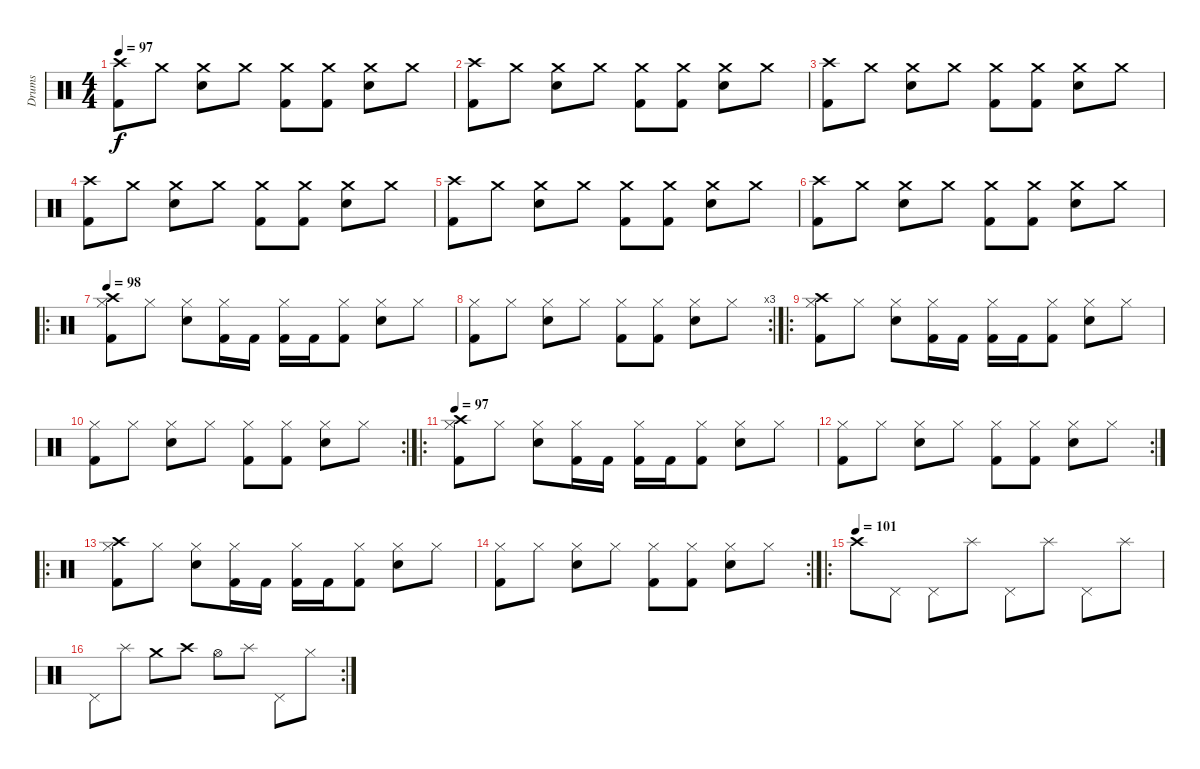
\track ("Drums" "Drums") {instrument percussion}
\staff {score}
\articulation defaults
\ts (4 4)
\tempo 97
\clef neutral
\ks c
("Crash high (hit)" "Kick (hit) 2").8{dy f} "Crash medium (hit)".8 ("Crash medium (hit)" "Electric Snare (hit)").8 "Crash medium (hit)".8 ("Crash medium (hit)" "Kick (hit) 2").8 ("Crash medium (hit)" "Kick (hit) 2").8 ("Crash medium (hit)" "Electric Snare (hit)").8 "Crash medium (hit)".8 |
("Crash high (hit)" "Kick (hit) 2").8 "Crash medium (hit)".8 ("Crash medium (hit)" "Electric Snare (hit)").8 "Crash medium (hit)".8 ("Crash medium (hit)" "Kick (hit) 2").8 ("Crash medium (hit)" "Kick (hit) 2").8 ("Crash medium (hit)" "Electric Snare (hit)").8 "Crash medium (hit)".8 |
("Crash high (hit)" "Kick (hit) 2").8 "Crash medium (hit)".8 ("Crash medium (hit)" "Electric Snare (hit)").8 "Crash medium (hit)".8 ("Crash medium (hit)" "Kick (hit) 2").8 ("Crash medium (hit)" "Kick (hit) 2").8 ("Crash medium (hit)" "Electric Snare (hit)").8 "Crash medium (hit)".8 |
("Crash high (hit)" "Kick (hit) 2").8 "Crash medium (hit)".8 ("Crash medium (hit)" "Electric Snare (hit)").8 "Crash medium (hit)".8 ("Crash medium (hit)" "Kick (hit) 2").8 ("Crash medium (hit)" "Kick (hit) 2").8 ("Crash medium (hit)" "Electric Snare (hit)").8 "Crash medium (hit)".8 |
("Crash high (hit)" "Kick (hit) 2").8 "Crash medium (hit)".8 ("Crash medium (hit)" "Electric Snare (hit)").8 "Crash medium (hit)".8 ("Crash medium (hit)" "Kick (hit) 2").8 ("Crash medium (hit)" "Kick (hit) 2").8 ("Crash medium (hit)" "Electric Snare (hit)").8 "Crash medium (hit)".8 |
("Crash high (hit)" "Kick (hit) 2").8 "Crash medium (hit)".8 ("Crash medium (hit)" "Electric Snare (hit)").8 "Crash medium (hit)".8 ("Crash medium (hit)" "Kick (hit) 2").8 ("Crash medium (hit)" "Kick (hit) 2").8 ("Crash medium (hit)" "Electric Snare (hit)").8 "Crash medium (hit)".8 |
\ro
\tempo 98
("Hi-Hat (closed)" "Crash high (hit)" "Kick (hit) 2").8 "Hi-Hat (closed)".8 ("Hi-Hat (closed)" "Electric Snare (hit)").8 ("Hi-Hat (closed)" "Kick (hit) 2").16 "Kick (hit) 2".16 ("Hi-Hat (closed)" "Kick (hit) 2").16 "Kick (hit) 2".16 ("Hi-Hat (closed)" "Kick (hit) 2").8 ("Hi-Hat (closed)" "Electric Snare (hit)").8 "Hi-Hat (closed)".8 |
\rc 3
("Hi-Hat (closed)" "Kick (hit) 2").8 "Hi-Hat (closed)".8 ("Hi-Hat (closed)" "Electric Snare (hit)").8 "Hi-Hat (closed)".8 ("Hi-Hat (closed)" "Kick (hit) 2").8 ("Hi-Hat (closed)" "Kick (hit) 2").8 ("Hi-Hat (closed)" "Electric Snare (hit)").8 "Hi-Hat (closed)".8 |
\ro
("Hi-Hat (closed)" "Crash high (hit)" "Kick (hit) 2").8 "Hi-Hat (closed)".8 ("Hi-Hat (closed)" "Electric Snare (hit)").8 ("Hi-Hat (closed)" "Kick (hit) 2").16 "Kick (hit) 2".16 ("Hi-Hat (closed)" "Kick (hit) 2").16 "Kick (hit) 2".16 ("Hi-Hat (closed)" "Kick (hit) 2").8 ("Hi-Hat (closed)" "Electric Snare (hit)").8 "Hi-Hat (closed)".8 |
\rc 2
("Hi-Hat (closed)" "Kick (hit) 2").8 "Hi-Hat (closed)".8 ("Hi-Hat (closed)" "Electric Snare (hit)").8 "Hi-Hat (closed)".8 ("Hi-Hat (closed)" "Kick (hit) 2").8 ("Hi-Hat (closed)" "Kick (hit) 2").8 ("Hi-Hat (closed)" "Electric Snare (hit)").8 "Hi-Hat (closed)".8 |
\ro
\tempo 97
("Hi-Hat (closed)" "Crash high (hit)" "Kick (hit) 2").8 "Hi-Hat (closed)".8 ("Hi-Hat (closed)" "Electric Snare (hit)").8 ("Hi-Hat (closed)" "Kick (hit) 2").16 "Kick (hit) 2".16 ("Hi-Hat (closed)" "Kick (hit) 2").16 "Kick (hit) 2".16 ("Hi-Hat (closed)" "Kick (hit) 2").8 ("Hi-Hat (closed)" "Electric Snare (hit)").8 "Hi-Hat (closed)".8 |
\rc 2
("Hi-Hat (closed)" "Kick (hit) 2").8 "Hi-Hat (closed)".8 ("Hi-Hat (closed)" "Electric Snare (hit)").8 "Hi-Hat (closed)".8 ("Hi-Hat (closed)" "Kick (hit) 2").8 ("Hi-Hat (closed)" "Kick (hit) 2").8 ("Hi-Hat (closed)" "Electric Snare (hit)").8 "Hi-Hat (closed)".8 |
\ro
("Hi-Hat (closed)" "Crash high (hit)" "Kick (hit) 2").8 "Hi-Hat (closed)".8 ("Hi-Hat (closed)" "Electric Snare (hit)").8 ("Hi-Hat (closed)" "Kick (hit) 2").16 "Kick (hit) 2".16 ("Hi-Hat (closed)" "Kick (hit) 2").16 "Kick (hit) 2".16 ("Hi-Hat (closed)" "Kick (hit) 2").8 ("Hi-Hat (closed)" "Electric Snare (hit)").8 "Hi-Hat (closed)".8 |
\rc 2
("Hi-Hat (closed)" "Kick (hit) 2").8 "Hi-Hat (closed)".8 ("Hi-Hat (closed)" "Electric Snare (hit)").8 "Hi-Hat (closed)".8 ("Hi-Hat (closed)" "Kick (hit) 2").8 ("Hi-Hat (closed)" "Kick (hit) 2").8 ("Hi-Hat (closed)" "Electric Snare (hit)").8 "Hi-Hat (closed)".8 |
\ro
\tempo (101)
"Crash high (hit)".8 "Pedal Hi-Hat (hit)".8 "Pedal Hi-Hat (hit)".8 "Splash (hit)".8 "Pedal Hi-Hat (hit)".8 "Splash (hit)".8 "Pedal Hi-Hat (hit)".8 "Splash (hit)".8 |
\rc 2 "Pedal Hi-Hat (hit)".8 "Splash (hit)".8 "Crash medium (hit)".8 "Crash high (hit)".8 "Hi-Hat (open)".8 "Splash (hit)".8 "Pedal Hi-Hat (hit)".8 "Hi-Hat (closed)".8
